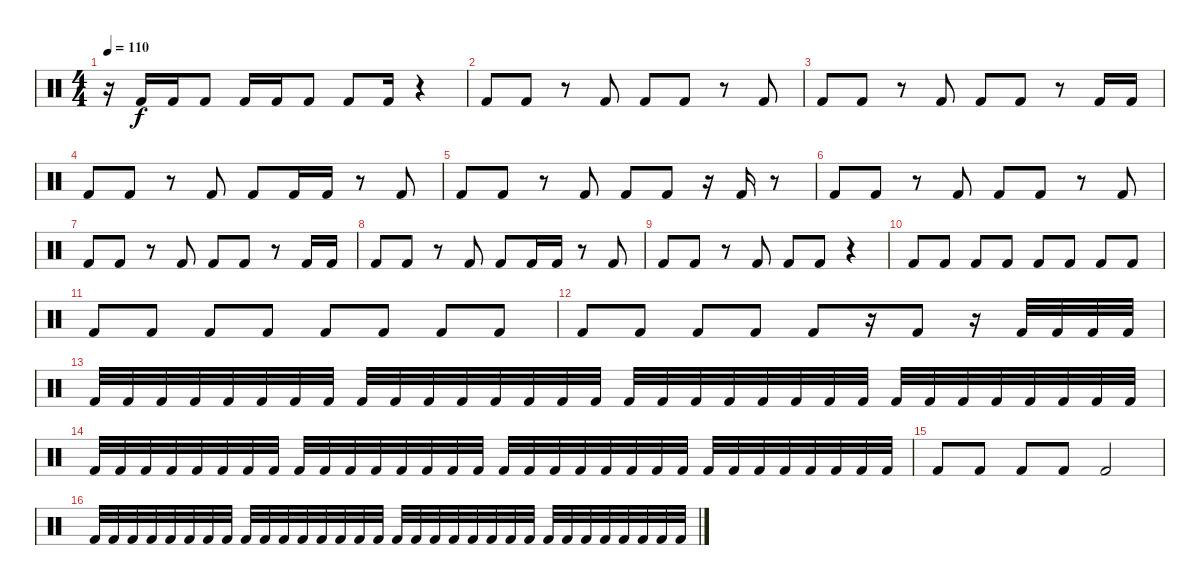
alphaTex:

\track "" {instrument percussion}
\staff {score}
\articulation defaults
\ts (4 4)
\tempo 110
\clef neutral
\ks c
r.16{dy f} "Kick (hit) 2".16 "Kick (hit) 2".16 "Kick (hit) 2".8 "Kick (hit) 2".16 "Kick (hit) 2".16 "Kick (hit) 2".8 "Kick (hit) 2".8 "Kick (hit) 2".16 r.4 |
"Kick (hit) 2".8 "Kick (hit) 2".8 r.8 "Kick (hit) 2".8 "Kick (hit) 2".8 "Kick (hit) 2".8 r.8 "Kick (hit) 2".8 |
"Kick (hit) 2".8 "Kick (hit) 2".8 r.8 "Kick (hit) 2".8 "Kick (hit) 2".8 "Kick (hit) 2".8 r.8 "Kick (hit) 2".16 "Kick (hit) 2".16 |
"Kick (hit) 2".8 "Kick (hit) 2".8 r.8 "Kick (hit) 2".8 "Kick (hit) 2".8 "Kick (hit) 2".16 "Kick (hit) 2".16 r.8 "Kick (hit) 2".8 |
"Kick (hit) 2".8 "Kick (hit) 2".8 r.8 "Kick (hit) 2".8 "Kick (hit) 2".8 "Kick (hit) 2".8 r.16 "Kick (hit) 2".16 r.8 |
"Kick (hit) 2".8 "Kick (hit) 2".8 r.8 "Kick (hit) 2".8 "Kick (hit) 2".8 "Kick (hit) 2".8 r.8 "Kick (hit) 2".8 |
"Kick (hit) 2".8 "Kick (hit) 2".8 r.8 "Kick (hit) 2".8 "Kick (hit) 2".8 "Kick (hit) 2".8 r.8 "Kick (hit) 2".16 "Kick (hit) 2".16 |
"Kick (hit) 2".8 "Kick (hit) 2".8 r.8 "Kick (hit) 2".8 "Kick (hit) 2".8 "Kick (hit) 2".16 "Kick (hit) 2".16 r.8 "Kick (hit) 2".8 |
"Kick (hit) 2".8 "Kick (hit) 2".8 r.8 "Kick (hit) 2".8 "Kick (hit) 2".8 "Kick (hit) 2".8 r.4 |
"Kick (hit) 2".8 "Kick (hit) 2".8 "Kick (hit) 2".8 "Kick (hit) 2".8 "Kick (hit) 2".8 "Kick (hit) 2".8 "Kick (hit) 2".8 "Kick (hit) 2".8 |
"Kick (hit) 2".8 "Kick (hit) 2".8 "Kick (hit) 2".8 "Kick (hit) 2".8 "Kick (hit) 2".8 "Kick (hit) 2".8 "Kick (hit) 2".8 "Kick (hit) 2".8 |
"Kick (hit) 2".8 "Kick (hit) 2".8 "Kick (hit) 2".8 "Kick (hit) 2".8 "Kick (hit) 2".8 r.16 "Kick (hit) 2".8 r.16 "Kick (hit) 2".32 "Kick (hit) 2".32 "Kick (hit) 2".32 "Kick (hit) 2".32 |
"Kick (hit) 2".32 "Kick (hit) 2".32 "Kick (hit) 2".32 "Kick (hit) 2".32 "Kick (hit) 2".32 "Kick (hit) 2".32 "Kick (hit) 2".32 "Kick (hit) 2".32 "Kick (hit) 2".32 "Kick (hit) 2".32 "Kick (hit) 2".32 "Kick (hit) 2".32 "Kick (hit) 2".32 "Kick (hit) 2".32 "Kick (hit) 2".32 "Kick (hit) 2".32 "Kick (hit) 2".32 "Kick (hit) 2".32 "Kick (hit) 2".32 "Kick (hit) 2".32 "Kick (hit) 2".32 "Kick (hit) 2".32 "Kick (hit) 2".32 "Kick (hit) 2".32 "Kick (hit) 2".32 "Kick (hit) 2".32 "Kick (hit) 2".32 "Kick (hit) 2".32 "Kick (hit) 2".32 "Kick (hit) 2".32 "Kick (hit) 2".32 "Kick (hit) 2".32 |
"Kick (hit) 2".32 "Kick (hit) 2".32 "Kick (hit) 2".32 "Kick (hit) 2".32 "Kick (hit) 2".32 "Kick (hit) 2".32 "Kick (hit) 2".32 "Kick (hit) 2".32 "Kick (hit) 2".32 "Kick (hit) 2".32 "Kick (hit) 2".32 "Kick (hit) 2".32 "Kick (hit) 2".32 "Kick (hit) 2".32 "Kick (hit) 2".32 "Kick (hit) 2".32 "Kick (hit) 2".32 "Kick (hit) 2".32 "Kick (hit) 2".32 "Kick (hit) 2".32 "Kick (hit) 2".32 "Kick (hit) 2".32 "Kick (hit) 2".32 "Kick (hit) 2".32 "Kick (hit) 2".32 "Kick (hit) 2".32 "Kick (hit) 2".32 "Kick (hit) 2".32 "Kick (hit) 2".32 "Kick (hit) 2".32 "Kick (hit) 2".32 "Kick (hit) 2".32 |
"Kick (hit) 2".8 "Kick (hit) 2".8 "Kick (hit) 2".8 "Kick (hit) 2".8 "Kick (hit) 2".2 |
"Kick (hit) 2".32 "Kick (hit) 2".32 "Kick (hit) 2".32 "Kick (hit) 2".32 "Kick (hit) 2".32 "Kick (hit) 2".32 "Kick (hit) 2".32 "Kick (hit) 2".32 "Kick (hit) 2".32 "Kick (hit) 2".32 "Kick (hit) 2".32 "Kick (hit) 2".32 "Kick (hit) 2".32 "Kick (hit) 2".32 "Kick (hit) 2".32 "Kick (hit) 2".32 "Kick (hit) 2".32 "Kick (hit) 2".32 "Kick (hit) 2".32 "Kick (hit) 2".32 "Kick (hit) 2".32 "Kick (hit) 2".32 "Kick (hit) 2".32 "Kick (hit) 2".32 "Kick (hit) 2".32 "Kick (hit) 2".32 "Kick (hit) 2".32 "Kick (hit) 2".32 "Kick (hit) 2".32 "Kick (hit) 2".32 "Kick (hit) 2".32 "Kick (hit) 2".32
